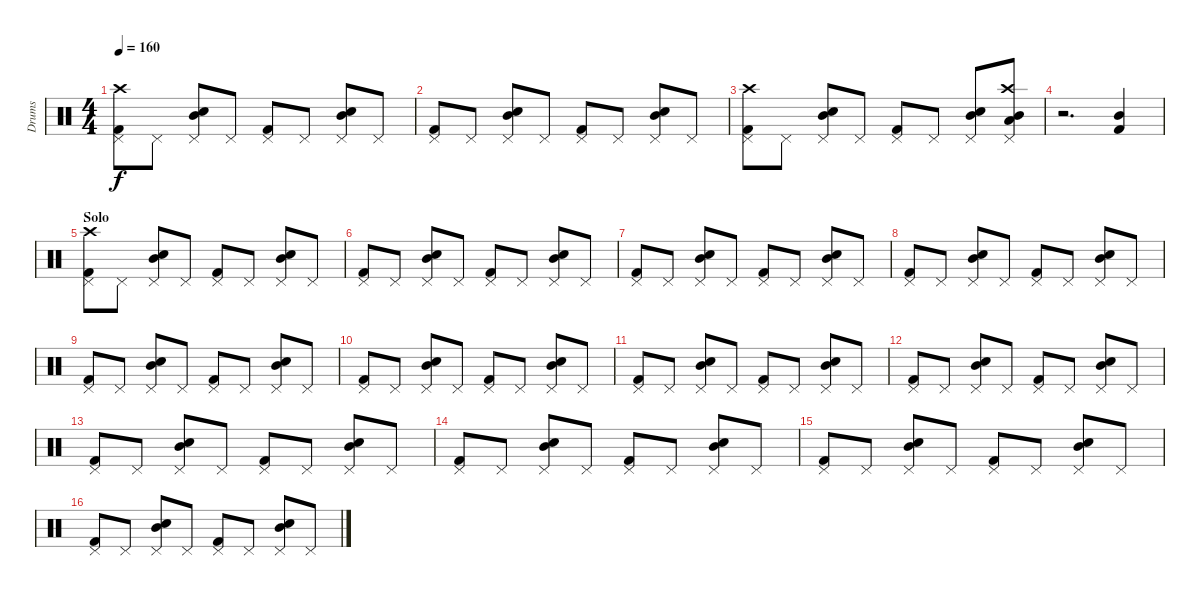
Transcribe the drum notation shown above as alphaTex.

\track ("Drums" "Drums") {instrument percussion}
\staff {score}
\articulation defaults
\ts (4 4)
\tempo 160
\clef neutral
\ks c
("Kick (hit) 2" "Pedal Hi-Hat (hit)" "Crash high (hit)").8{dy f} "Pedal Hi-Hat (hit)".8 ("Snare (hit) 2" "Pedal Hi-Hat (hit)" "Mid Tom (hit)").8 "Pedal Hi-Hat (hit)".8 ("Kick (hit) 2" "Pedal Hi-Hat (hit)").8 "Pedal Hi-Hat (hit)".8 ("Snare (hit) 2" "Pedal Hi-Hat (hit)" "Mid Tom (hit)").8 "Pedal Hi-Hat (hit)".8 |
("Kick (hit) 2" "Pedal Hi-Hat (hit)").8 "Pedal Hi-Hat (hit)".8 ("Snare (hit) 2" "Pedal Hi-Hat (hit)" "Mid Tom (hit)").8 "Pedal Hi-Hat (hit)".8 ("Kick (hit) 2" "Pedal Hi-Hat (hit)").8 "Pedal Hi-Hat (hit)".8 ("Snare (hit) 2" "Pedal Hi-Hat (hit)" "Mid Tom (hit)").8 "Pedal Hi-Hat (hit)".8 |
("Kick (hit) 2" "Pedal Hi-Hat (hit)" "Crash high (hit)").8 "Pedal Hi-Hat (hit)".8 ("Snare (hit) 2" "Pedal Hi-Hat (hit)" "Mid Tom (hit)").8 "Pedal Hi-Hat (hit)".8 ("Kick (hit) 2" "Pedal Hi-Hat (hit)").8 "Pedal Hi-Hat (hit)".8 ("Snare (hit) 2" "Pedal Hi-Hat (hit)" "Mid Tom (hit)").8 ("Crash high (hit)" "Pedal Hi-Hat (hit)" "Low Tom (hit)" "Mid Tom (hit)").8 |
r.2{d} ("Mid Tom (hit)" "Kick (hit) 2").4 |
\section ("" "Solo")
("Kick (hit) 2" "Pedal Hi-Hat (hit)" "Crash high (hit)").8 "Pedal Hi-Hat (hit)".8 ("Snare (hit) 2" "Pedal Hi-Hat (hit)" "Mid Tom (hit)").8 "Pedal Hi-Hat (hit)".8 ("Kick (hit) 2" "Pedal Hi-Hat (hit)").8 "Pedal Hi-Hat (hit)".8 ("Snare (hit) 2" "Pedal Hi-Hat (hit)" "Mid Tom (hit)").8 "Pedal Hi-Hat (hit)".8 |
("Kick (hit) 2" "Pedal Hi-Hat (hit)").8 "Pedal Hi-Hat (hit)".8 ("Snare (hit) 2" "Pedal Hi-Hat (hit)" "Mid Tom (hit)").8 "Pedal Hi-Hat (hit)".8 ("Kick (hit) 2" "Pedal Hi-Hat (hit)").8 "Pedal Hi-Hat (hit)".8 ("Snare (hit) 2" "Pedal Hi-Hat (hit)" "Mid Tom (hit)").8 "Pedal Hi-Hat (hit)".8 |
("Kick (hit) 2" "Pedal Hi-Hat (hit)").8 "Pedal Hi-Hat (hit)".8 ("Snare (hit) 2" "Pedal Hi-Hat (hit)" "Mid Tom (hit)").8 "Pedal Hi-Hat (hit)".8 ("Kick (hit) 2" "Pedal Hi-Hat (hit)").8 "Pedal Hi-Hat (hit)".8 ("Snare (hit) 2" "Pedal Hi-Hat (hit)" "Mid Tom (hit)").8 "Pedal Hi-Hat (hit)".8 |
("Kick (hit) 2" "Pedal Hi-Hat (hit)").8 "Pedal Hi-Hat (hit)".8 ("Snare (hit) 2" "Pedal Hi-Hat (hit)" "Mid Tom (hit)").8 "Pedal Hi-Hat (hit)".8 ("Kick (hit) 2" "Pedal Hi-Hat (hit)").8 "Pedal Hi-Hat (hit)".8 ("Snare (hit) 2" "Pedal Hi-Hat (hit)" "Mid Tom (hit)").8 "Pedal Hi-Hat (hit)".8 |
("Kick (hit) 2" "Pedal Hi-Hat (hit)").8 "Pedal Hi-Hat (hit)".8 ("Snare (hit) 2" "Pedal Hi-Hat (hit)" "Mid Tom (hit)").8 "Pedal Hi-Hat (hit)".8 ("Kick (hit) 2" "Pedal Hi-Hat (hit)").8 "Pedal Hi-Hat (hit)".8 ("Snare (hit) 2" "Pedal Hi-Hat (hit)" "Mid Tom (hit)").8 "Pedal Hi-Hat (hit)".8 |
("Kick (hit) 2" "Pedal Hi-Hat (hit)").8 "Pedal Hi-Hat (hit)".8 ("Snare (hit) 2" "Pedal Hi-Hat (hit)" "Mid Tom (hit)").8 "Pedal Hi-Hat (hit)".8 ("Kick (hit) 2" "Pedal Hi-Hat (hit)").8 "Pedal Hi-Hat (hit)".8 ("Snare (hit) 2" "Pedal Hi-Hat (hit)" "Mid Tom (hit)").8 "Pedal Hi-Hat (hit)".8 |
("Kick (hit) 2" "Pedal Hi-Hat (hit)").8 "Pedal Hi-Hat (hit)".8 ("Snare (hit) 2" "Pedal Hi-Hat (hit)" "Mid Tom (hit)").8 "Pedal Hi-Hat (hit)".8 ("Kick (hit) 2" "Pedal Hi-Hat (hit)").8 "Pedal Hi-Hat (hit)".8 ("Snare (hit) 2" "Pedal Hi-Hat (hit)" "Mid Tom (hit)").8 "Pedal Hi-Hat (hit)".8 |
("Kick (hit) 2" "Pedal Hi-Hat (hit)").8 "Pedal Hi-Hat (hit)".8 ("Snare (hit) 2" "Pedal Hi-Hat (hit)" "Mid Tom (hit)").8 "Pedal Hi-Hat (hit)".8 ("Kick (hit) 2" "Pedal Hi-Hat (hit)").8 "Pedal Hi-Hat (hit)".8 ("Snare (hit) 2" "Pedal Hi-Hat (hit)" "Mid Tom (hit)").8 "Pedal Hi-Hat (hit)".8 |
("Kick (hit) 2" "Pedal Hi-Hat (hit)").8 "Pedal Hi-Hat (hit)".8 ("Snare (hit) 2" "Pedal Hi-Hat (hit)" "Mid Tom (hit)").8 "Pedal Hi-Hat (hit)".8 ("Kick (hit) 2" "Pedal Hi-Hat (hit)").8 "Pedal Hi-Hat (hit)".8 ("Snare (hit) 2" "Pedal Hi-Hat (hit)" "Mid Tom (hit)").8 "Pedal Hi-Hat (hit)".8 |
("Kick (hit) 2" "Pedal Hi-Hat (hit)").8 "Pedal Hi-Hat (hit)".8 ("Snare (hit) 2" "Pedal Hi-Hat (hit)" "Mid Tom (hit)").8 "Pedal Hi-Hat (hit)".8 ("Kick (hit) 2" "Pedal Hi-Hat (hit)").8 "Pedal Hi-Hat (hit)".8 ("Snare (hit) 2" "Pedal Hi-Hat (hit)" "Mid Tom (hit)").8 "Pedal Hi-Hat (hit)".8 |
("Kick (hit) 2" "Pedal Hi-Hat (hit)").8 "Pedal Hi-Hat (hit)".8 ("Snare (hit) 2" "Pedal Hi-Hat (hit)" "Mid Tom (hit)").8 "Pedal Hi-Hat (hit)".8 ("Kick (hit) 2" "Pedal Hi-Hat (hit)").8 "Pedal Hi-Hat (hit)".8 ("Snare (hit) 2" "Pedal Hi-Hat (hit)" "Mid Tom (hit)").8 "Pedal Hi-Hat (hit)".8 |
("Kick (hit) 2" "Pedal Hi-Hat (hit)").8 "Pedal Hi-Hat (hit)".8 ("Snare (hit) 2" "Pedal Hi-Hat (hit)" "Mid Tom (hit)").8 "Pedal Hi-Hat (hit)".8 ("Kick (hit) 2" "Pedal Hi-Hat (hit)").8 "Pedal Hi-Hat (hit)".8 ("Snare (hit) 2" "Pedal Hi-Hat (hit)" "Mid Tom (hit)").8 "Pedal Hi-Hat (hit)".8
